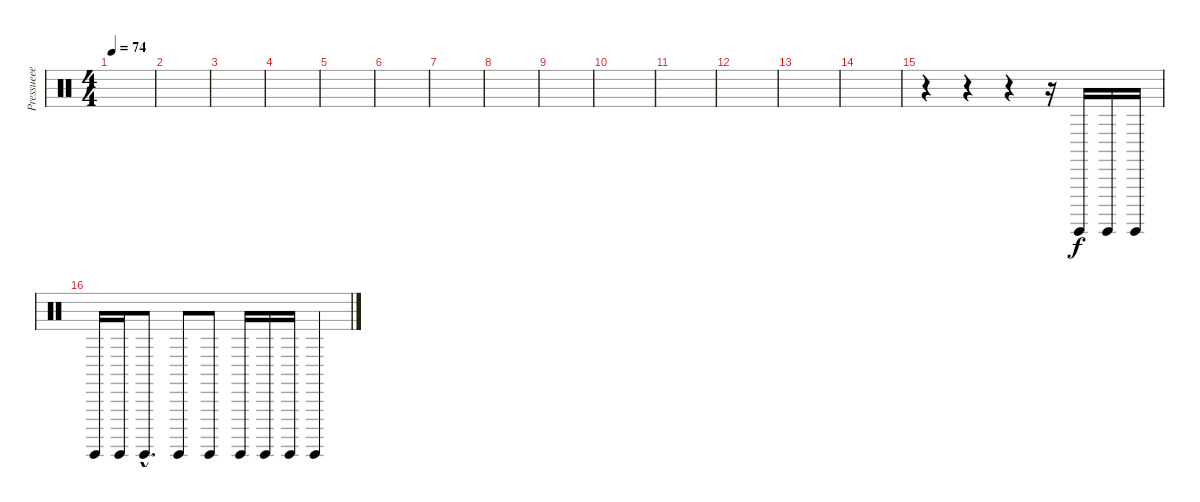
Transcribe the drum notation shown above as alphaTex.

\track ("Pressueee " "Pressueee ") {instrument percussion}
\staff {score}
\articulation defaults
\ts (4 4)
\tempo 74
\clef neutral
\ks c
|
|
|
|
|
|
|
|
|
|
|
|
|
|
r.4 r.4 r.4 r.16 "Surdo (hit)".16 "Surdo (hit)".16 "Surdo (hit)".16 |
"Surdo (hit)".16 "Surdo (hit)".16 "Surdo (hit)"{hac}.8{d} "Surdo (hit)".8 "Surdo (hit)".8 "Surdo (hit)".16 "Surdo (hit)".16 "Surdo (hit)".16 "Surdo (hit)".4
